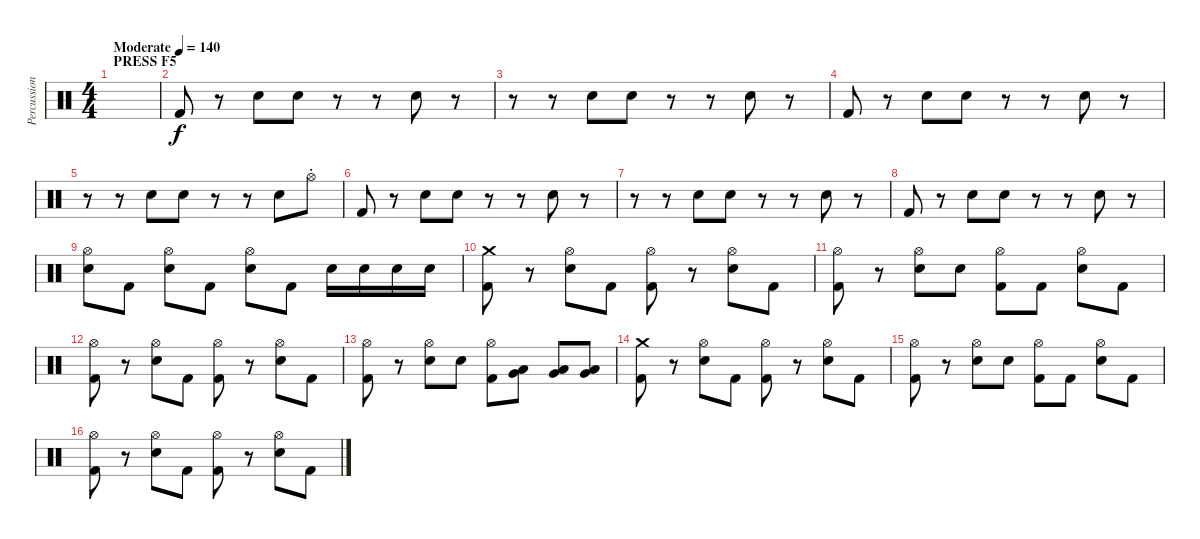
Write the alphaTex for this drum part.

\track ("Percussion" "Percussion") {instrument percussion}
\staff {score}
\articulation defaults
\ts (4 4)
\section ("" "PRESS F5")
\tempo (140 "Moderate")
\clef neutral
\ks c
|
"Kick (hit) 2".8 r.8 "Electric Snare (hit)".8 "Electric Snare (hit)".8 r.8 r.8 "Electric Snare (hit)".8 r.8 |
r.8 r.8 "Electric Snare (hit)".8 "Electric Snare (hit)".8 r.8 r.8 "Electric Snare (hit)".8 r.8 |
"Kick (hit) 2".8 r.8 "Electric Snare (hit)".8 "Electric Snare (hit)".8 r.8 r.8 "Electric Snare (hit)".8 r.8 |
r.8 r.8 "Electric Snare (hit)".8 "Electric Snare (hit)".8 r.8 r.8 "Electric Snare (hit)".8 "Hi-Hat (open)"{st}.8 |
"Kick (hit) 2".8 r.8 "Electric Snare (hit)".8 "Electric Snare (hit)".8 r.8 r.8 "Electric Snare (hit)".8 r.8 |
r.8 r.8 "Electric Snare (hit)".8 "Electric Snare (hit)".8 r.8 r.8 "Electric Snare (hit)".8 r.8 |
"Kick (hit) 2".8 r.8 "Electric Snare (hit)".8 "Electric Snare (hit)".8 r.8 r.8 "Electric Snare (hit)".8 r.8 |
("Hi-Hat (open)" "Electric Snare (hit)").8 "Kick (hit) 2".8 ("Hi-Hat (open)" "Electric Snare (hit)").8 "Kick (hit) 2".8 ("Hi-Hat (open)" "Electric Snare (hit)").8 "Kick (hit) 2".8 "Electric Snare (hit)".16 "Electric Snare (hit)".16 "Electric Snare (hit)".16 "Electric Snare (hit)".16 |
("Crash medium (hit)" "Kick (hit) 2").8 r.8 ("Hi-Hat (open)" "Electric Snare (hit)").8 "Kick (hit) 2".8 ("Hi-Hat (open)" "Kick (hit) 2").8 r.8 ("Hi-Hat (open)" "Electric Snare (hit)").8 "Kick (hit) 2".8 |
("Hi-Hat (open)" "Kick (hit) 2").8 r.8 ("Hi-Hat (open)" "Electric Snare (hit)").8 "Electric Snare (hit)".8 ("Hi-Hat (open)" "Kick (hit) 2").8 "Kick (hit) 2".8 ("Hi-Hat (open)" "Electric Snare (hit)").8 "Kick (hit) 2".8 |
("Hi-Hat (open)" "Kick (hit) 2").8 r.8 ("Hi-Hat (open)" "Electric Snare (hit)").8 "Kick (hit) 2".8 ("Hi-Hat (open)" "Kick (hit) 2").8 r.8 ("Hi-Hat (open)" "Electric Snare (hit)").8 "Kick (hit) 2".8 |
("Hi-Hat (open)" "Kick (hit) 2").8 r.8 ("Hi-Hat (open)" "Electric Snare (hit)").8 "Electric Snare (hit)".8 ("Hi-Hat (open)" "Kick (hit) 2").8 ("Very Low Tom (hit)" "Low Floor Tom (hit)").8 ("Very Low Tom (hit)" "Low Floor Tom (hit)").8 ("Very Low Tom (hit)" "Low Floor Tom (hit)").8 |
("Crash medium (hit)" "Kick (hit) 2").8 r.8 ("Hi-Hat (open)" "Electric Snare (hit)").8 "Kick (hit) 2".8 ("Hi-Hat (open)" "Kick (hit) 2").8 r.8 ("Hi-Hat (open)" "Electric Snare (hit)").8 "Kick (hit) 2".8 |
("Hi-Hat (open)" "Kick (hit) 2").8 r.8 ("Hi-Hat (open)" "Electric Snare (hit)").8 "Electric Snare (hit)".8 ("Hi-Hat (open)" "Kick (hit) 2").8 "Kick (hit) 2".8 ("Hi-Hat (open)" "Electric Snare (hit)").8 "Kick (hit) 2".8 |
("Hi-Hat (open)" "Kick (hit) 2").8 r.8 ("Hi-Hat (open)" "Electric Snare (hit)").8 "Kick (hit) 2".8 ("Hi-Hat (open)" "Kick (hit) 2").8 r.8 ("Hi-Hat (open)" "Electric Snare (hit)").8 "Kick (hit) 2".8
